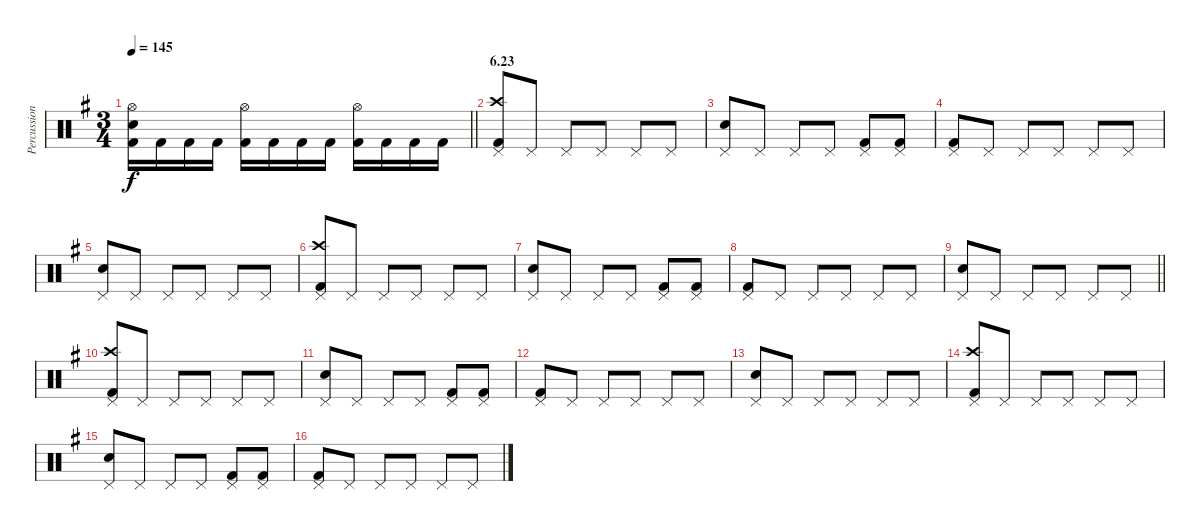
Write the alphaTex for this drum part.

\track ("Percussion" "Percussion") {instrument percussion}
\staff {score}
\articulation defaults
\ts (3 4)
\tempo 145
\clef neutral
\barLineRight lightlight
\ks eminor
("Hi-Hat (open)" "Electric Snare (hit)" "Kick (hit) 2").16{dy f} "Kick (hit) 2".16 "Kick (hit) 2".16 "Kick (hit) 2".16 ("Hi-Hat (open)" "Kick (hit) 2").16 "Kick (hit) 2".16 "Kick (hit) 2".16 "Kick (hit) 2".16 ("Hi-Hat (open)" "Kick (hit) 2").16 "Kick (hit) 2".16 "Kick (hit) 2".16 "Kick (hit) 2".16 |
\section ("" "6.23")
("Crash high (hit)" "Pedal Hi-Hat (hit)" "Kick (hit) 2").8 "Pedal Hi-Hat (hit)".8 "Pedal Hi-Hat (hit)".8 "Pedal Hi-Hat (hit)".8 "Pedal Hi-Hat (hit)".8 "Pedal Hi-Hat (hit)".8 |
("Pedal Hi-Hat (hit)" "Electric Snare (hit)").8 "Pedal Hi-Hat (hit)".8 "Pedal Hi-Hat (hit)".8 "Pedal Hi-Hat (hit)".8 ("Pedal Hi-Hat (hit)" "Kick (hit) 2").8 ("Pedal Hi-Hat (hit)" "Kick (hit) 2").8 |
("Pedal Hi-Hat (hit)" "Kick (hit) 2").8 "Pedal Hi-Hat (hit)".8 "Pedal Hi-Hat (hit)".8 "Pedal Hi-Hat (hit)".8 "Pedal Hi-Hat (hit)".8 "Pedal Hi-Hat (hit)".8 |
("Pedal Hi-Hat (hit)" "Electric Snare (hit)").8 "Pedal Hi-Hat (hit)".8 "Pedal Hi-Hat (hit)".8 "Pedal Hi-Hat (hit)".8 "Pedal Hi-Hat (hit)".8 "Pedal Hi-Hat (hit)".8 |
("Crash high (hit)" "Pedal Hi-Hat (hit)" "Kick (hit) 2").8 "Pedal Hi-Hat (hit)".8 "Pedal Hi-Hat (hit)".8 "Pedal Hi-Hat (hit)".8 "Pedal Hi-Hat (hit)".8 "Pedal Hi-Hat (hit)".8 |
("Pedal Hi-Hat (hit)" "Electric Snare (hit)").8 "Pedal Hi-Hat (hit)".8 "Pedal Hi-Hat (hit)".8 "Pedal Hi-Hat (hit)".8 ("Pedal Hi-Hat (hit)" "Kick (hit) 2").8 ("Pedal Hi-Hat (hit)" "Kick (hit) 2").8 |
("Pedal Hi-Hat (hit)" "Kick (hit) 2").8 "Pedal Hi-Hat (hit)".8 "Pedal Hi-Hat (hit)".8 "Pedal Hi-Hat (hit)".8 "Pedal Hi-Hat (hit)".8 "Pedal Hi-Hat (hit)".8 |
\barLineRight lightlight
("Pedal Hi-Hat (hit)" "Electric Snare (hit)").8 "Pedal Hi-Hat (hit)".8 "Pedal Hi-Hat (hit)".8 "Pedal Hi-Hat (hit)".8 "Pedal Hi-Hat (hit)".8 "Pedal Hi-Hat (hit)".8 |
("Crash high (hit)" "Pedal Hi-Hat (hit)" "Kick (hit) 2").8 "Pedal Hi-Hat (hit)".8 "Pedal Hi-Hat (hit)".8 "Pedal Hi-Hat (hit)".8 "Pedal Hi-Hat (hit)".8 "Pedal Hi-Hat (hit)".8 |
("Pedal Hi-Hat (hit)" "Electric Snare (hit)").8 "Pedal Hi-Hat (hit)".8 "Pedal Hi-Hat (hit)".8 "Pedal Hi-Hat (hit)".8 ("Pedal Hi-Hat (hit)" "Kick (hit) 2").8 ("Pedal Hi-Hat (hit)" "Kick (hit) 2").8 |
("Pedal Hi-Hat (hit)" "Kick (hit) 2").8 "Pedal Hi-Hat (hit)".8 "Pedal Hi-Hat (hit)".8 "Pedal Hi-Hat (hit)".8 "Pedal Hi-Hat (hit)".8 "Pedal Hi-Hat (hit)".8 |
("Pedal Hi-Hat (hit)" "Electric Snare (hit)").8 "Pedal Hi-Hat (hit)".8 "Pedal Hi-Hat (hit)".8 "Pedal Hi-Hat (hit)".8 "Pedal Hi-Hat (hit)".8 "Pedal Hi-Hat (hit)".8 |
("Crash high (hit)" "Pedal Hi-Hat (hit)" "Kick (hit) 2").8 "Pedal Hi-Hat (hit)".8 "Pedal Hi-Hat (hit)".8 "Pedal Hi-Hat (hit)".8 "Pedal Hi-Hat (hit)".8 "Pedal Hi-Hat (hit)".8 |
("Pedal Hi-Hat (hit)" "Electric Snare (hit)").8 "Pedal Hi-Hat (hit)".8 "Pedal Hi-Hat (hit)".8 "Pedal Hi-Hat (hit)".8 ("Pedal Hi-Hat (hit)" "Kick (hit) 2").8 ("Pedal Hi-Hat (hit)" "Kick (hit) 2").8 |
("Pedal Hi-Hat (hit)" "Kick (hit) 2").8 "Pedal Hi-Hat (hit)".8 "Pedal Hi-Hat (hit)".8 "Pedal Hi-Hat (hit)".8 "Pedal Hi-Hat (hit)".8 "Pedal Hi-Hat (hit)".8
